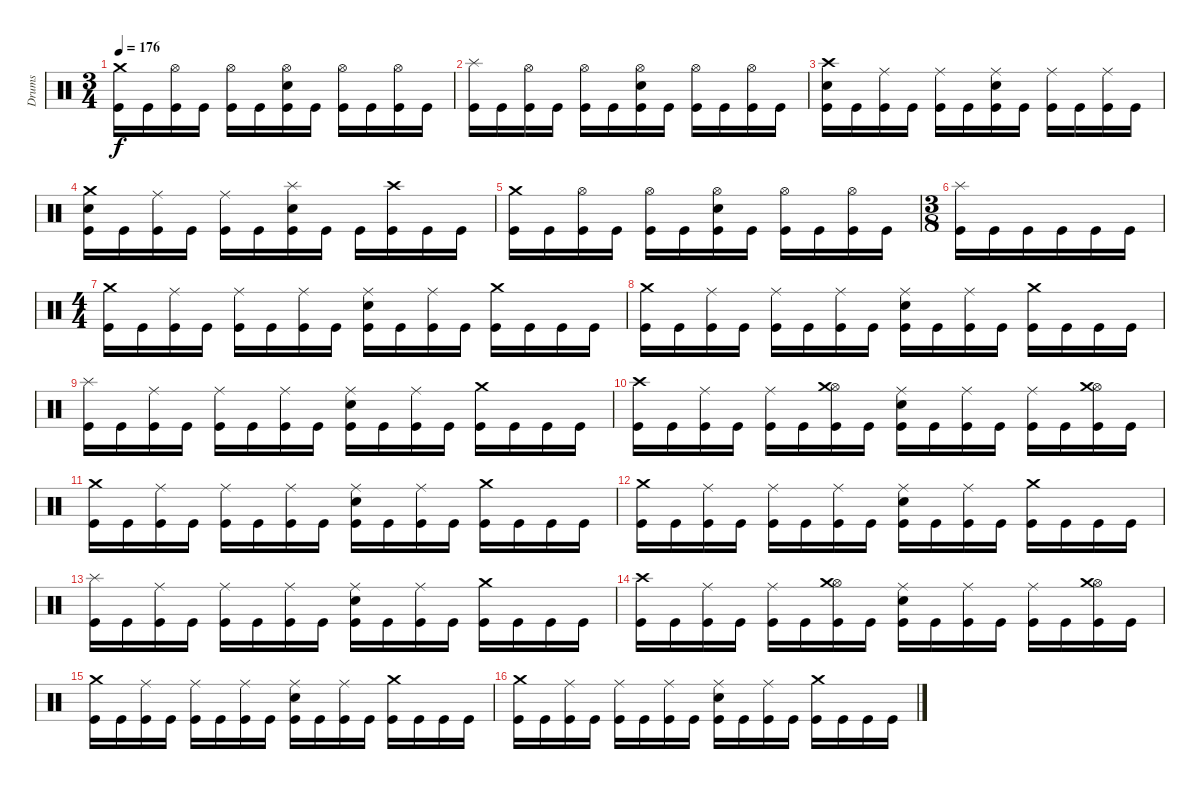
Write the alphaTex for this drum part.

\track ("Drums" "Drums") {instrument percussion}
\staff {score}
\articulation defaults
\ts (3 4)
\tempo 176
\clef neutral
\ks c
("Crash medium (hit)" "Kick (hit)").16{dy f} "Kick (hit)".16 ("Hi-Hat (open)" "Kick (hit)").16 "Kick (hit)".16 ("Hi-Hat (open)" "Kick (hit)").16 "Kick (hit)".16 ("Hi-Hat (open)" "Electric Snare (hit)" "Kick (hit)").16 "Kick (hit)".16 ("Hi-Hat (open)" "Kick (hit)").16 "Kick (hit)".16 ("Hi-Hat (open)" "Kick (hit)").16 "Kick (hit)".16 |
("Splash (hit)" "Kick (hit)").16 "Kick (hit)".16 ("Hi-Hat (open)" "Kick (hit)").16 "Kick (hit)".16 ("Hi-Hat (open)" "Kick (hit)").16 "Kick (hit)".16 ("Hi-Hat (open)" "Electric Snare (hit)" "Kick (hit)").16 "Kick (hit)".16 ("Hi-Hat (open)" "Kick (hit)").16 "Kick (hit)".16 ("Hi-Hat (open)" "Kick (hit)").16 "Kick (hit)".16 |
("Crash high (hit)" "Electric Snare (hit)" "Kick (hit)").16 "Kick (hit)".16 ("Ride (middle)" "Kick (hit)").16 "Kick (hit)".16 ("Ride (middle)" "Kick (hit)").16 "Kick (hit)".16 ("Ride (middle)" "Electric Snare (hit)" "Kick (hit)").16 "Kick (hit)".16 ("Ride (middle)" "Kick (hit)").16 "Kick (hit)".16 ("Ride (middle)" "Kick (hit)").16 "Kick (hit)".16 |
("Crash medium (hit)" "Electric Snare (hit)" "Kick (hit)").16 "Kick (hit)".16 ("Ride (middle)" "Kick (hit)").16 "Kick (hit)".16 ("Ride (middle)" "Kick (hit)").16 "Kick (hit)".16 ("Splash (hit)" "Electric Snare (hit)" "Kick (hit)").16 "Kick (hit)".16 "Kick (hit)".16 ("Crash high (hit)" "Kick (hit)").16 "Kick (hit)".16 "Kick (hit)".16 |
("Crash medium (hit)" "Kick (hit)").16 "Kick (hit)".16 ("Hi-Hat (open)" "Kick (hit)").16 "Kick (hit)".16 ("Hi-Hat (open)" "Kick (hit)").16 "Kick (hit)".16 ("Hi-Hat (open)" "Electric Snare (hit)" "Kick (hit)").16 "Kick (hit)".16 ("Hi-Hat (open)" "Kick (hit)").16 "Kick (hit)".16 ("Hi-Hat (open)" "Kick (hit)").16 "Kick (hit)".16 |
\ts (3 8)
("Splash (hit)" "Kick (hit)").16 "Kick (hit)".16 "Kick (hit)".16 "Kick (hit)".16 "Kick (hit)".16 "Kick (hit)".16 |
\ts (4 4)
("Crash medium (hit)" "Kick (hit)").16 "Kick (hit)".16 ("Ride (middle)" "Kick (hit)").16 "Kick (hit)".16 ("Ride (middle)" "Kick (hit)").16 "Kick (hit)".16 ("Ride (middle)" "Kick (hit)").16 "Kick (hit)".16 ("Ride (middle)" "Electric Snare (hit)" "Kick (hit)").16 "Kick (hit)".16 ("Ride (middle)" "Kick (hit)").16 "Kick (hit)".16 ("Crash medium (hit)" "Kick (hit)").16 "Kick (hit)".16 "Kick (hit)".16 "Kick (hit)".16 |
("Crash medium (hit)" "Kick (hit)").16 "Kick (hit)".16 ("Ride (middle)" "Kick (hit)").16 "Kick (hit)".16 ("Ride (middle)" "Kick (hit)").16 "Kick (hit)".16 ("Ride (middle)" "Kick (hit)").16 "Kick (hit)".16 ("Ride (middle)" "Electric Snare (hit)" "Kick (hit)").16 "Kick (hit)".16 ("Ride (middle)" "Kick (hit)").16 "Kick (hit)".16 ("Crash medium (hit)" "Kick (hit)").16 "Kick (hit)".16 "Kick (hit)".16 "Kick (hit)".16 |
("Splash (hit)" "Kick (hit)").16 "Kick (hit)".16 ("Ride (middle)" "Kick (hit)").16 "Kick (hit)".16 ("Ride (middle)" "Kick (hit)").16 "Kick (hit)".16 ("Ride (middle)" "Kick (hit)").16 "Kick (hit)".16 ("Ride (middle)" "Electric Snare (hit)" "Kick (hit)").16 "Kick (hit)".16 ("Ride (middle)" "Kick (hit)").16 "Kick (hit)".16 ("Crash medium (hit)" "Kick (hit)").16 "Kick (hit)".16 "Kick (hit)".16 "Kick (hit)".16 |
("Crash high (hit)" "Kick (hit)").16 "Kick (hit)".16 ("Ride (middle)" "Kick (hit)").16 "Kick (hit)".16 ("Ride (middle)" "Kick (hit)").16 "Kick (hit)".16 ("Hi-Hat (open)" "Crash medium (hit)" "Kick (hit)").16 "Kick (hit)".16 ("Ride (middle)" "Electric Snare (hit)" "Kick (hit)").16 "Kick (hit)".16 ("Ride (middle)" "Kick (hit)").16 "Kick (hit)".16 ("Ride (middle)" "Kick (hit)").16 "Kick (hit)".16 ("Hi-Hat (open)" "Crash medium (hit)" "Kick (hit)").16 "Kick (hit)".16 |
("Crash medium (hit)" "Kick (hit)").16 "Kick (hit)".16 ("Ride (middle)" "Kick (hit)").16 "Kick (hit)".16 ("Ride (middle)" "Kick (hit)").16 "Kick (hit)".16 ("Ride (middle)" "Kick (hit)").16 "Kick (hit)".16 ("Ride (middle)" "Electric Snare (hit)" "Kick (hit)").16 "Kick (hit)".16 ("Ride (middle)" "Kick (hit)").16 "Kick (hit)".16 ("Crash medium (hit)" "Kick (hit)").16 "Kick (hit)".16 "Kick (hit)".16 "Kick (hit)".16 |
("Crash medium (hit)" "Kick (hit)").16 "Kick (hit)".16 ("Ride (middle)" "Kick (hit)").16 "Kick (hit)".16 ("Ride (middle)" "Kick (hit)").16 "Kick (hit)".16 ("Ride (middle)" "Kick (hit)").16 "Kick (hit)".16 ("Ride (middle)" "Electric Snare (hit)" "Kick (hit)").16 "Kick (hit)".16 ("Ride (middle)" "Kick (hit)").16 "Kick (hit)".16 ("Crash medium (hit)" "Kick (hit)").16 "Kick (hit)".16 "Kick (hit)".16 "Kick (hit)".16 |
("Splash (hit)" "Kick (hit)").16 "Kick (hit)".16 ("Ride (middle)" "Kick (hit)").16 "Kick (hit)".16 ("Ride (middle)" "Kick (hit)").16 "Kick (hit)".16 ("Ride (middle)" "Kick (hit)").16 "Kick (hit)".16 ("Ride (middle)" "Electric Snare (hit)" "Kick (hit)").16 "Kick (hit)".16 ("Ride (middle)" "Kick (hit)").16 "Kick (hit)".16 ("Crash medium (hit)" "Kick (hit)").16 "Kick (hit)".16 "Kick (hit)".16 "Kick (hit)".16 |
("Crash high (hit)" "Kick (hit)").16 "Kick (hit)".16 ("Ride (middle)" "Kick (hit)").16 "Kick (hit)".16 ("Ride (middle)" "Kick (hit)").16 "Kick (hit)".16 ("Hi-Hat (open)" "Crash medium (hit)" "Kick (hit)").16 "Kick (hit)".16 ("Ride (middle)" "Electric Snare (hit)" "Kick (hit)").16 "Kick (hit)".16 ("Ride (middle)" "Kick (hit)").16 "Kick (hit)".16 ("Ride (middle)" "Kick (hit)").16 "Kick (hit)".16 ("Hi-Hat (open)" "Crash medium (hit)" "Kick (hit)").16 "Kick (hit)".16 |
("Crash medium (hit)" "Kick (hit)").16 "Kick (hit)".16 ("Ride (middle)" "Kick (hit)").16 "Kick (hit)".16 ("Ride (middle)" "Kick (hit)").16 "Kick (hit)".16 ("Ride (middle)" "Kick (hit)").16 "Kick (hit)".16 ("Ride (middle)" "Electric Snare (hit)" "Kick (hit)").16 "Kick (hit)".16 ("Ride (middle)" "Kick (hit)").16 "Kick (hit)".16 ("Crash medium (hit)" "Kick (hit)").16 "Kick (hit)".16 "Kick (hit)".16 "Kick (hit)".16 |
("Crash medium (hit)" "Kick (hit)").16 "Kick (hit)".16 ("Ride (middle)" "Kick (hit)").16 "Kick (hit)".16 ("Ride (middle)" "Kick (hit)").16 "Kick (hit)".16 ("Ride (middle)" "Kick (hit)").16 "Kick (hit)".16 ("Ride (middle)" "Electric Snare (hit)" "Kick (hit)").16 "Kick (hit)".16 ("Ride (middle)" "Kick (hit)").16 "Kick (hit)".16 ("Crash medium (hit)" "Kick (hit)").16 "Kick (hit)".16 "Kick (hit)".16 "Kick (hit)".16
